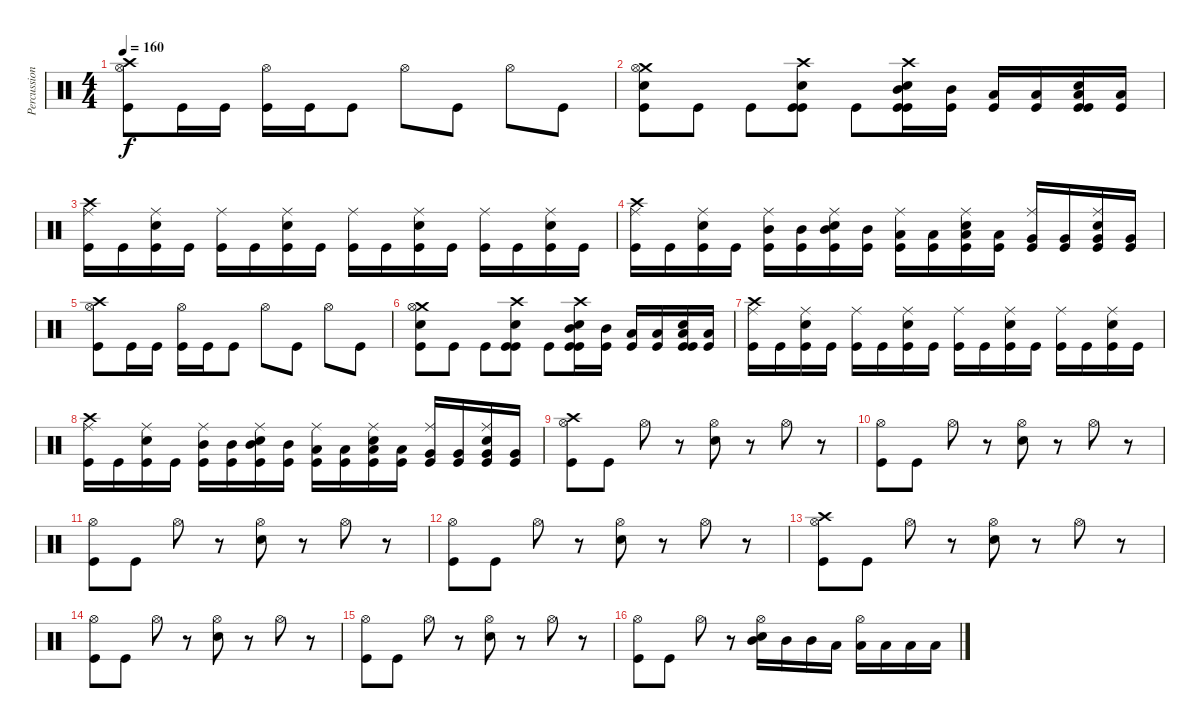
\track ("Percussion" "Percussion") {instrument percussion}
\staff {score}
\articulation defaults
\ts (4 4)
\tempo 160
\clef neutral
\ks c
("Crash high (hit)" "Hi-Hat (open)" "Kick (hit)").8{dy f} "Kick (hit)".16 "Kick (hit)".16 ("Hi-Hat (open)" "Kick (hit)").16 "Kick (hit)".16 "Kick (hit)".8 "Hi-Hat (open)".8 "Kick (hit)".8 "Hi-Hat (open)".8 "Kick (hit)".8 |
("Crash medium (hit)" "Hi-Hat (open)" "Electric Snare (hit)" "Kick (hit)").8 "Kick (hit)".8 "Kick (hit)".8 ("Crash high (hit)" "Electric Snare (hit)" "Kick (hit)" "Kick (hit)").8 "Kick (hit)".8 ("Crash high (hit)" "Mid Tom (hit)" "Electric Snare (hit)" "Kick (hit)" "Kick (hit)").16 ("Mid Tom (hit)" "Kick (hit)").16 ("Low Tom (hit)" "Kick (hit)").16 ("Low Tom (hit)" "Kick (hit)").16 ("Low Floor Tom (hit)" "Electric Snare (hit)" "Kick (hit)" "Kick (hit)").16 ("Low Floor Tom (hit)" "Kick (hit)").16 |
("Crash high (hit)" "Ride (middle)" "Kick (hit)").16 "Kick (hit)".16 ("Electric Snare (hit)" "Ride (middle)" "Kick (hit)").16 "Kick (hit)".16 ("Ride (middle)" "Kick (hit)").16 "Kick (hit)".16 ("Electric Snare (hit)" "Ride (middle)" "Kick (hit)").16 "Kick (hit)".16 ("Ride (middle)" "Kick (hit)").16 "Kick (hit)".16 ("Electric Snare (hit)" "Ride (middle)" "Kick (hit)").16 "Kick (hit)".16 ("Ride (middle)" "Kick (hit)").16 "Kick (hit)".16 ("Electric Snare (hit)" "Ride (middle)" "Kick (hit)").16 "Kick (hit)".16 |
("Crash high (hit)" "Ride (middle)" "Kick (hit)").16 "Kick (hit)".16 ("Electric Snare (hit)" "Ride (middle)" "Kick (hit)").16 "Kick (hit)".16 ("Ride (middle)" "Mid Tom (hit)" "Kick (hit)").16 ("Mid Tom (hit)" "Kick (hit)").16 ("Electric Snare (hit)" "Ride (middle)" "Mid Tom (hit)" "Kick (hit)").16 ("Mid Tom (hit)" "Kick (hit)").16 ("Ride (middle)" "Low Tom (hit)" "Kick (hit)").16 ("Low Tom (hit)" "Kick (hit)").16 ("Electric Snare (hit)" "Ride (middle)" "Low Tom (hit)" "Kick (hit)").16 ("Low Tom (hit)" "Kick (hit)").16 ("Ride (middle)" "Very Low Tom (hit)" "Kick (hit)").16 ("Very Low Tom (hit)" "Kick (hit)").16 ("Electric Snare (hit)" "Ride (middle)" "Very Low Tom (hit)" "Kick (hit)").16 ("Very Low Tom (hit)" "Kick (hit)").16 |
("Crash high (hit)" "Hi-Hat (open)" "Kick (hit)").8 "Kick (hit)".16 "Kick (hit)".16 ("Hi-Hat (open)" "Kick (hit)").16 "Kick (hit)".16 "Kick (hit)".8 "Hi-Hat (open)".8 "Kick (hit)".8 "Hi-Hat (open)".8 "Kick (hit)".8 |
("Crash medium (hit)" "Hi-Hat (open)" "Electric Snare (hit)" "Kick (hit)").8 "Kick (hit)".8 "Kick (hit)".8 ("Crash high (hit)" "Electric Snare (hit)" "Kick (hit)" "Kick (hit)").8 "Kick (hit)".8 ("Crash high (hit)" "Mid Tom (hit)" "Electric Snare (hit)" "Kick (hit)" "Kick (hit)").16 ("Mid Tom (hit)" "Kick (hit)").16 ("Low Tom (hit)" "Kick (hit)").16 ("Low Tom (hit)" "Kick (hit)").16 ("Low Floor Tom (hit)" "Electric Snare (hit)" "Kick (hit)" "Kick (hit)").16 ("Low Floor Tom (hit)" "Kick (hit)").16 |
("Crash high (hit)" "Ride (middle)" "Kick (hit)").16 "Kick (hit)".16 ("Electric Snare (hit)" "Ride (middle)" "Kick (hit)").16 "Kick (hit)".16 ("Ride (middle)" "Kick (hit)").16 "Kick (hit)".16 ("Electric Snare (hit)" "Ride (middle)" "Kick (hit)").16 "Kick (hit)".16 ("Ride (middle)" "Kick (hit)").16 "Kick (hit)".16 ("Electric Snare (hit)" "Ride (middle)" "Kick (hit)").16 "Kick (hit)".16 ("Ride (middle)" "Kick (hit)").16 "Kick (hit)".16 ("Electric Snare (hit)" "Ride (middle)" "Kick (hit)").16 "Kick (hit)".16 |
("Crash high (hit)" "Ride (middle)" "Kick (hit)").16 "Kick (hit)".16 ("Electric Snare (hit)" "Ride (middle)" "Kick (hit)").16 "Kick (hit)".16 ("Ride (middle)" "Mid Tom (hit)" "Kick (hit)").16 ("Mid Tom (hit)" "Kick (hit)").16 ("Electric Snare (hit)" "Ride (middle)" "Mid Tom (hit)" "Kick (hit)").16 ("Mid Tom (hit)" "Kick (hit)").16 ("Ride (middle)" "Low Tom (hit)" "Kick (hit)").16 ("Low Tom (hit)" "Kick (hit)").16 ("Electric Snare (hit)" "Ride (middle)" "Low Tom (hit)" "Kick (hit)").16 ("Low Tom (hit)" "Kick (hit)").16 ("Ride (middle)" "Very Low Tom (hit)" "Kick (hit)").16 ("Very Low Tom (hit)" "Kick (hit)").16 ("Electric Snare (hit)" "Ride (middle)" "Very Low Tom (hit)" "Kick (hit)").16 ("Very Low Tom (hit)" "Kick (hit)").16 |
("Crash high (hit)" "Hi-Hat (open)" "Kick (hit)").8 "Kick (hit)".8 "Hi-Hat (open)".8 r.8 ("Hi-Hat (open)" "Electric Snare (hit)").8 r.8 "Hi-Hat (open)".8 r.8 |
("Hi-Hat (open)" "Kick (hit)").8 "Kick (hit)".8 "Hi-Hat (open)".8 r.8 ("Hi-Hat (open)" "Electric Snare (hit)").8 r.8 "Hi-Hat (open)".8 r.8 |
("Hi-Hat (open)" "Kick (hit)").8 "Kick (hit)".8 "Hi-Hat (open)".8 r.8 ("Hi-Hat (open)" "Electric Snare (hit)").8 r.8 "Hi-Hat (open)".8 r.8 |
("Hi-Hat (open)" "Kick (hit)").8 "Kick (hit)".8 "Hi-Hat (open)".8 r.8 ("Hi-Hat (open)" "Electric Snare (hit)").8 r.8 "Hi-Hat (open)".8 r.8 |
("Crash high (hit)" "Hi-Hat (open)" "Kick (hit)").8 "Kick (hit)".8 "Hi-Hat (open)".8 r.8 ("Hi-Hat (open)" "Electric Snare (hit)").8 r.8 "Hi-Hat (open)".8 r.8 |
("Hi-Hat (open)" "Kick (hit)").8 "Kick (hit)".8 "Hi-Hat (open)".8 r.8 ("Hi-Hat (open)" "Electric Snare (hit)").8 r.8 "Hi-Hat (open)".8 r.8 |
("Hi-Hat (open)" "Kick (hit)").8 "Kick (hit)".8 "Hi-Hat (open)".8 r.8 ("Hi-Hat (open)" "Electric Snare (hit)").8 r.8 "Hi-Hat (open)".8 r.8 |
("Hi-Hat (open)" "Kick (hit)").8 "Kick (hit)".8 "Hi-Hat (open)".8 r.8 ("Hi-Hat (open)" "Electric Snare (hit)" "Mid Tom (hit)").16 "Mid Tom (hit)".16 "Mid Tom (hit)".16 "Low Tom (hit)".16 ("Hi-Hat (open)" "Low Tom (hit)").16 "Low Tom (hit)".16 "Low Floor Tom (hit)".16 "Low Floor Tom (hit)".16
